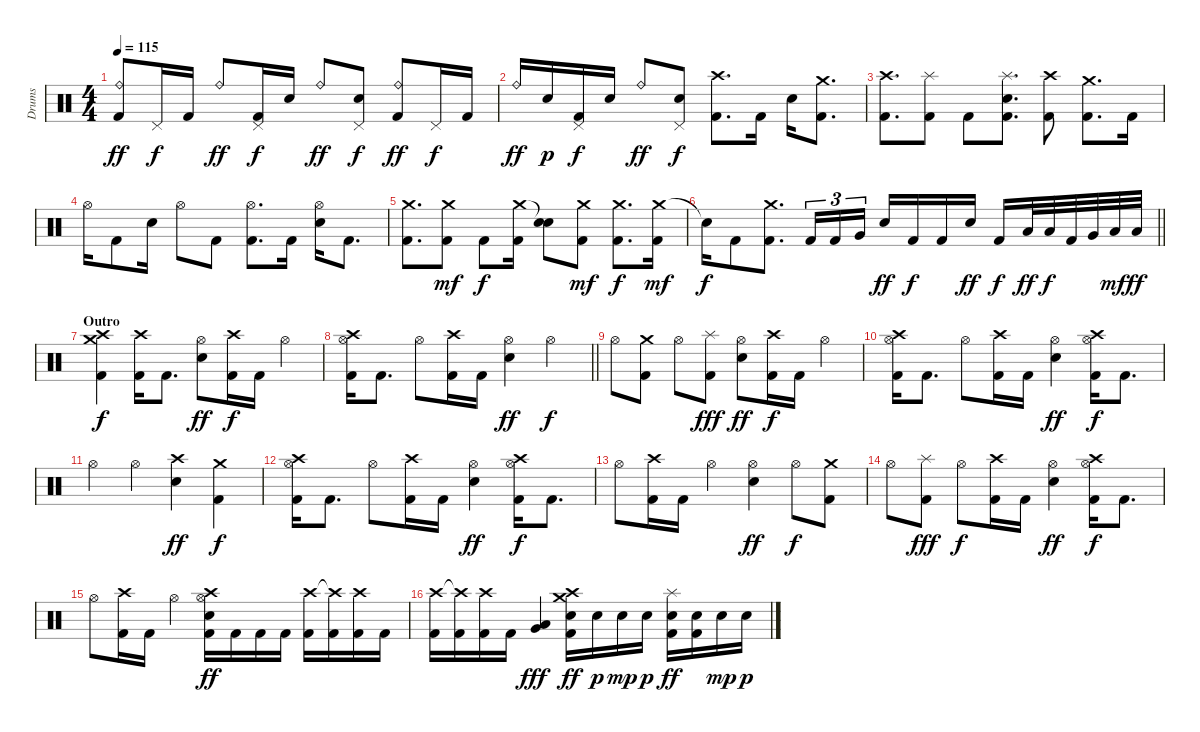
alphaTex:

\track ("Drums" "Drums") {instrument percussion}
\staff {score}
\articulation defaults
\ts (4 4)
\tempo 115
\clef neutral
\ks c
("Ride (bell)" "Kick (hit) 2").8{dy ff} "Pedal Hi-Hat (hit)".16{dy f} "Kick (hit) 2".16 "Ride (bell)".8{dy ff} ("Pedal Hi-Hat (hit)" "Kick (hit) 2").16{dy f} "Snare (hit) 2".16 "Ride (bell)".8{dy ff} ("Pedal Hi-Hat (hit)" "Snare (hit) 2").8{dy f} ("Ride (bell)" "Kick (hit) 2").8{dy ff} "Pedal Hi-Hat (hit)".16{dy f} "Kick (hit) 2".16 |
"Ride (bell)".16{dy ff} "Snare (hit) 2".16{dy p} ("Pedal Hi-Hat (hit)" "Kick (hit) 2").16{dy f} "Snare (hit) 2".16 "Ride (bell)".8{dy ff} ("Pedal Hi-Hat (hit)" "Snare (hit) 2").8{dy f} ("Crash high (hit)" "Kick (hit) 2").8{d} "Kick (hit) 2".16 "Snare (hit) 2".16 ("Crash medium (hit)" "Kick (hit) 2").8{d} |
("Crash high (hit)" "Kick (hit) 2").8{d} ("Splash (hit)" "Kick (hit) 2").8 "Kick (hit) 2".8 ("Splash (hit)" "Snare (hit) 2" "Kick (hit) 2").8{d} ("Crash high (hit)" "Kick (hit) 2").8 ("Crash medium (hit)" "Kick (hit) 2").8{d} "Kick (hit) 2".16 |
"Hi-Hat (open)".16 "Kick (hit) 2".8 "Snare (hit) 2".16 "Hi-Hat (open)".8 "Kick (hit) 2".8 ("Hi-Hat (open)" "Kick (hit) 2").8{d} "Kick (hit) 2".16 ("Hi-Hat (open)" "Snare (hit) 2").16 "Kick (hit) 2".8{d} |
("Crash medium (hit)" "Kick (hit) 2").8{d} ("Crash medium (hit)" "Kick (hit) 2").8{dy mf} "Kick (hit) 2".8{dy f} ("Crash medium (hit)" "Kick (hit) 2").16 ("Snare (hit)"{t} "Snare (hit) 2").8 ("Crash medium (hit)" "Kick (hit) 2").8{dy mf} ("Crash medium (hit)" "Kick (hit) 2").8{d dy f} ("Crash medium (hit)" "Kick (hit) 2").16{dy mf} |
\barLineRight lightlight "Snare (hit)"{t}.16{dy f} "Kick (hit) 2".8
("Crash medium (hit)" "Kick (hit) 2").8{d} "Kick (hit) 2".16{tu (3 2)} "Kick (hit) 2".16{tu (3 2)} "Very Low Tom (hit)".16{tu (3 2)} "Snare (hit) 2".16{dy ff} "Kick (hit) 2".16{dy f} "Kick (hit) 2".16 "Snare (hit) 2".16{dy ff} "Kick (hit) 2".16{dy f} "Low Tom (hit)".32{dy ff} "Low Tom (hit)".32{dy f} "Kick (hit) 2".32 "Very Low Tom (hit)".32 "Low Tom (hit)".32{dy mf} "Low Tom (hit)".32{dy ff} |
\section ("" "Outro")
("Crash high (hit)" "Crash medium (hit)" "Kick (hit) 2").4{dy f} ("Crash high (hit)" "Kick (hit) 2").16 "Kick (hit) 2".8{d} ("Hi-Hat (open)" "Snare (hit) 2").8{dy ff} ("Crash high (hit)" "Kick (hit) 2").16{dy f} "Kick (hit) 2".16 "Hi-Hat (open)".4 |
\barLineRight lightlight
("Crash high (hit)" "Hi-Hat (open)" "Kick (hit) 2").16 "Kick (hit) 2".8{d} "Hi-Hat (open)".8 ("Crash high (hit)" "Kick (hit) 2").16 "Kick (hit) 2".16 ("Hi-Hat (open)" "Snare (hit) 2").4{dy ff} "Hi-Hat (open)".4{dy f} |
"Hi-Hat (open)".8 ("Crash medium (hit)" "Kick (hit) 2").8 "Hi-Hat (open)".8 ("Splash (hit)" "Kick (hit) 2").8{dy fff} ("Hi-Hat (open)" "Snare (hit) 2").8{dy ff} ("Crash high (hit)" "Kick (hit) 2").16{dy f} "Kick (hit) 2".16 "Hi-Hat (open)".4 |
("Crash high (hit)" "Hi-Hat (open)" "Kick (hit) 2").16 "Kick (hit) 2".8{d} "Hi-Hat (open)".8 ("Crash high (hit)" "Kick (hit) 2").16 "Kick (hit) 2".16 ("Hi-Hat (open)" "Snare (hit) 2").4{dy ff} ("Crash high (hit)" "Hi-Hat (open)" "Kick (hit) 2").16{dy f} "Kick (hit) 2".8{d} |
"Hi-Hat (open)".4 "Hi-Hat (open)".4 ("Crash high (hit)" "Snare (hit) 2").4{dy ff} ("Crash medium (hit)" "Kick (hit) 2").4{dy f} |
("Crash high (hit)" "Hi-Hat (open)" "Kick (hit) 2").16 "Kick (hit) 2".8{d} "Hi-Hat (open)".8 ("Crash high (hit)" "Kick (hit) 2").16 "Kick (hit) 2".16 ("Hi-Hat (open)" "Snare (hit) 2").4{dy ff} ("Crash high (hit)" "Hi-Hat (open)" "Kick (hit) 2").16{dy f} "Kick (hit) 2".8{d} |
"Hi-Hat (open)".8 ("Crash high (hit)" "Kick (hit) 2").16 "Kick (hit) 2".16 "Hi-Hat (open)".4 ("Hi-Hat (open)" "Snare (hit) 2").4{dy ff} "Hi-Hat (open)".8{dy f} ("Crash medium (hit)" "Kick (hit) 2").8 |
"Hi-Hat (open)".8 ("Splash (hit)" "Kick (hit) 2").8{dy fff} "Hi-Hat (open)".8{dy f} ("Crash high (hit)" "Kick (hit) 2").16 "Kick (hit) 2".16 ("Hi-Hat (open)" "Snare (hit) 2").4{dy ff} ("Crash high (hit)" "Hi-Hat (open)" "Kick (hit) 2").16{dy f} "Kick (hit) 2".8{d} |
"Hi-Hat (open)".8 ("Crash high (hit)" "Kick (hit) 2").16 "Kick (hit) 2".16 "Hi-Hat (open)".4 ("Crash high (hit)" "Hi-Hat (open)" "Snare (hit) 2" "Kick (hit) 2").16{dy ff} "Kick (hit) 2".16 "Kick (hit) 2".16 "Kick (hit) 2".16 ("Crash high (hit)" "Kick (hit) 2").16 ("Crash high (hit)"{t} "Kick (hit) 2").16 ("Crash high (hit)" "Kick (hit) 2").16 "Kick (hit) 2".16 |
("Crash high (hit)" "Kick (hit) 2").16 ("Crash high (hit)"{t} "Kick (hit) 2").16 ("Crash high (hit)" "Kick (hit) 2").16 "Kick (hit) 2".16 ("Low Tom (hit)" "Very Low Tom (hit)").4{dy fff} ("Crash high (hit)" "Crash medium (hit)" "Snare (hit) 2" "Kick (hit) 2").16{dy ff} "Snare (hit) 2".16{dy p} "Snare (hit) 2".16{dy mp} "Snare (hit) 2".16{dy p} ("Splash (hit)" "Snare (hit) 2" "Kick (hit) 2").16{dy ff} ("Snare (hit) 2" "Kick (hit) 2").16 "Snare (hit) 2".16{dy mp} "Snare (hit) 2".16{dy p}
